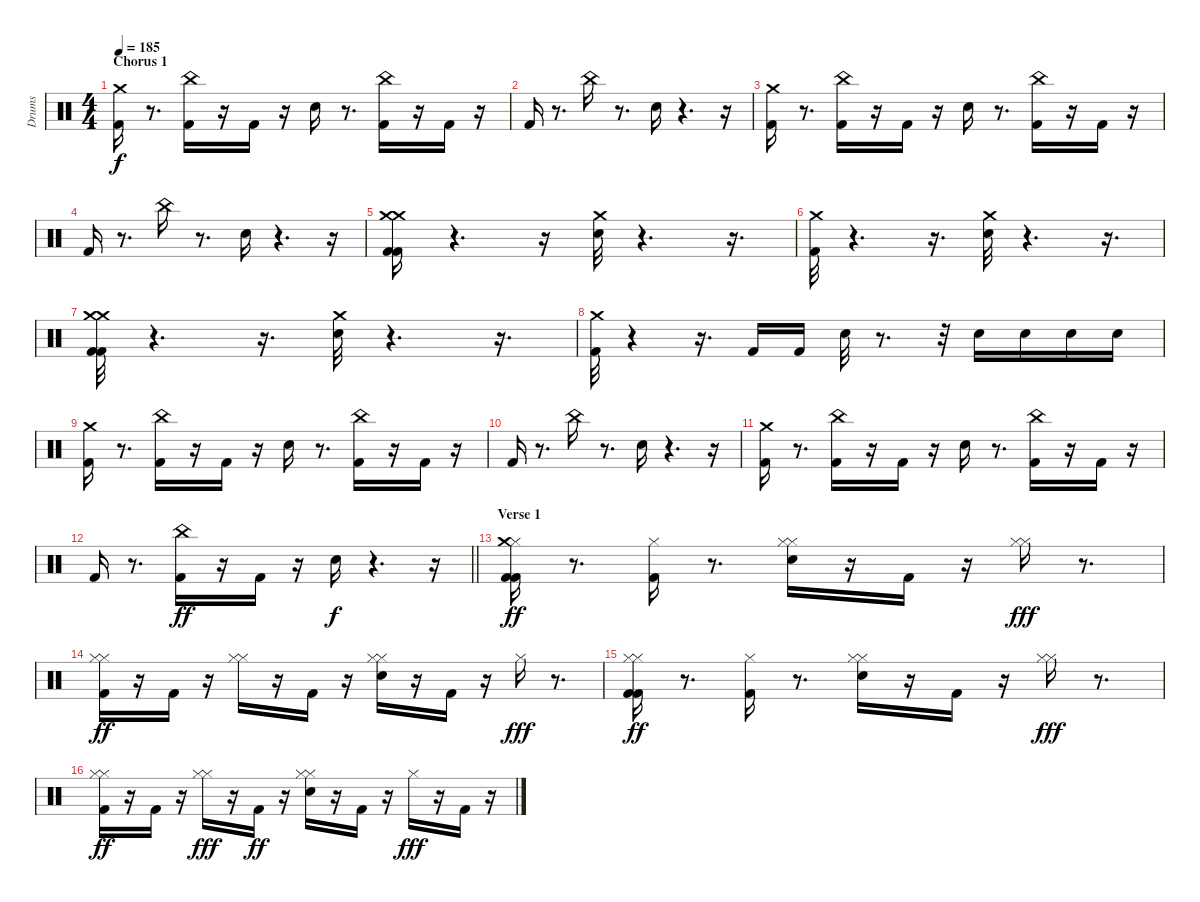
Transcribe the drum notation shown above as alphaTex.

\track ("Drums" "Drums") {instrument percussion}
\staff {score}
\articulation defaults
\ts (4 4)
\section ("" "Chorus 1")
\tempo 185
\clef neutral
\ks c
("Kick (hit) 2" "Crash medium (hit)").16{dy f} r.8{d} ("China (hit)" "Kick (hit) 2").16 r.16 "Kick (hit) 2".16 r.16 "Electric Snare (hit)".16 r.8{d} ("Kick (hit) 2" "China (hit)").16 r.16 "Kick (hit) 2".16 r.16 |
"Kick (hit) 2".16 r.8{d} "China (hit)".16 r.8{d} "Electric Snare (hit)".16 r.4{d} r.16 |
("Kick (hit) 2" "Crash medium (hit)").16 r.8{d} ("China (hit)" "Kick (hit) 2").16 r.16 "Kick (hit) 2".16 r.16 "Electric Snare (hit)".16 r.8{d} ("Kick (hit) 2" "China (hit)").16 r.16 "Kick (hit) 2".16 r.16 |
"Kick (hit) 2".16 r.8{d} "China (hit)".16 r.8{d} "Electric Snare (hit)".16 r.4{d} r.16 |
("Kick (hit) 2" "Crash medium (hit)" "Kick (hit) 2" "Crash medium (hit)").16 r.4{d} r.16 ("Crash medium (hit)" "Electric Snare (hit)").32 r.4{d} r.16{d} |
("Kick (hit) 2" "Crash medium (hit)").32 r.4{d} r.16{d} ("Electric Snare (hit)" "Crash medium (hit)").32 r.4{d} r.16{d} |
("Crash medium (hit)" "Kick (hit) 2" "Kick (hit) 2" "Crash medium (hit)").32 r.4{d} r.16{d} ("Electric Snare (hit)" "Crash medium (hit)").32 r.4{d} r.16{d} |
("Crash medium (hit)" "Kick (hit) 2").32 r.4 r.16{d} "Kick (hit) 2".16 "Kick (hit) 2".16 "Electric Snare (hit)".32 r.8{d} r.32 "Electric Snare (hit)".16 "Electric Snare (hit)".16 "Electric Snare (hit)".16 "Electric Snare (hit)".16 |
("Kick (hit) 2" "Crash medium (hit)").16 r.8{d} ("China (hit)" "Kick (hit) 2").16 r.16 "Kick (hit) 2".16 r.16 "Electric Snare (hit)".16 r.8{d} ("Kick (hit) 2" "China (hit)").16 r.16 "Kick (hit) 2".16 r.16 |
"Kick (hit) 2".16 r.8{d} "China (hit)".16 r.8{d} "Electric Snare (hit)".16 r.4{d} r.16 |
("Kick (hit) 2" "Crash medium (hit)").16 r.8{d} ("China (hit)" "Kick (hit) 2").16 r.16 "Kick (hit) 2".16 r.16 "Electric Snare (hit)".16 r.8{d} ("Kick (hit) 2" "China (hit)").16 r.16 "Kick (hit) 2".16 r.16 |
\barLineRight lightlight "Kick (hit) 2".16
r.8{d} ("Kick (hit) 2" "China (hit)").16{dy ff} r.16 "Kick (hit) 2".16 r.16 "Electric Snare (hit)".16{dy f} r.4{d} r.16 |
\section ("" "Verse 1")
("Hi-Hat (closed)" "Kick (hit) 2" "Crash medium (hit)" "Kick (hit) 2").16{dy ff} r.8{d} ("Kick (hit) 2" "Hi-Hat (closed)").16 r.8{d} ("Hi-Hat (closed)" "Electric Snare (hit)" "Hi-Hat (closed)").16 r.16 "Kick (hit) 2".16 r.16 ("Hi-Hat (closed)" "Hi-Hat (closed)").16{dy fff} r.8{d} |
("Hi-Hat (closed)" "Kick (hit) 2" "Hi-Hat (closed)").16{dy ff} r.16 "Kick (hit) 2".16 r.16 ("Hi-Hat (closed)" "Hi-Hat (closed)").16 r.16 "Kick (hit) 2".16 r.16 ("Hi-Hat (closed)" "Electric Snare (hit)" "Hi-Hat (closed)").16 r.16 "Kick (hit) 2".16 r.16 "Hi-Hat (closed)".16{dy fff} r.8{d} |
("Hi-Hat (closed)" "Hi-Hat (closed)" "Kick (hit) 2" "Kick (hit) 2").16{dy ff} r.8{d} ("Kick (hit) 2" "Hi-Hat (closed)").16 r.8{d} ("Hi-Hat (closed)" "Electric Snare (hit)" "Hi-Hat (closed)").16 r.16 "Kick (hit) 2".16 r.16 ("Hi-Hat (closed)" "Hi-Hat (closed)").16{dy fff} r.8{d} |
("Hi-Hat (closed)" "Kick (hit) 2" "Hi-Hat (closed)").16{dy ff} r.16 "Kick (hit) 2".16 r.16 ("Hi-Hat (closed)" "Hi-Hat (closed)").16{dy fff} r.16 "Kick (hit) 2".16{dy ff} r.16 ("Hi-Hat (closed)" "Electric Snare (hit)" "Hi-Hat (closed)").16 r.16 "Kick (hit) 2".16 r.16 "Hi-Hat (closed)".16{dy fff} r.16 "Kick (hit) 2".16 r.16
